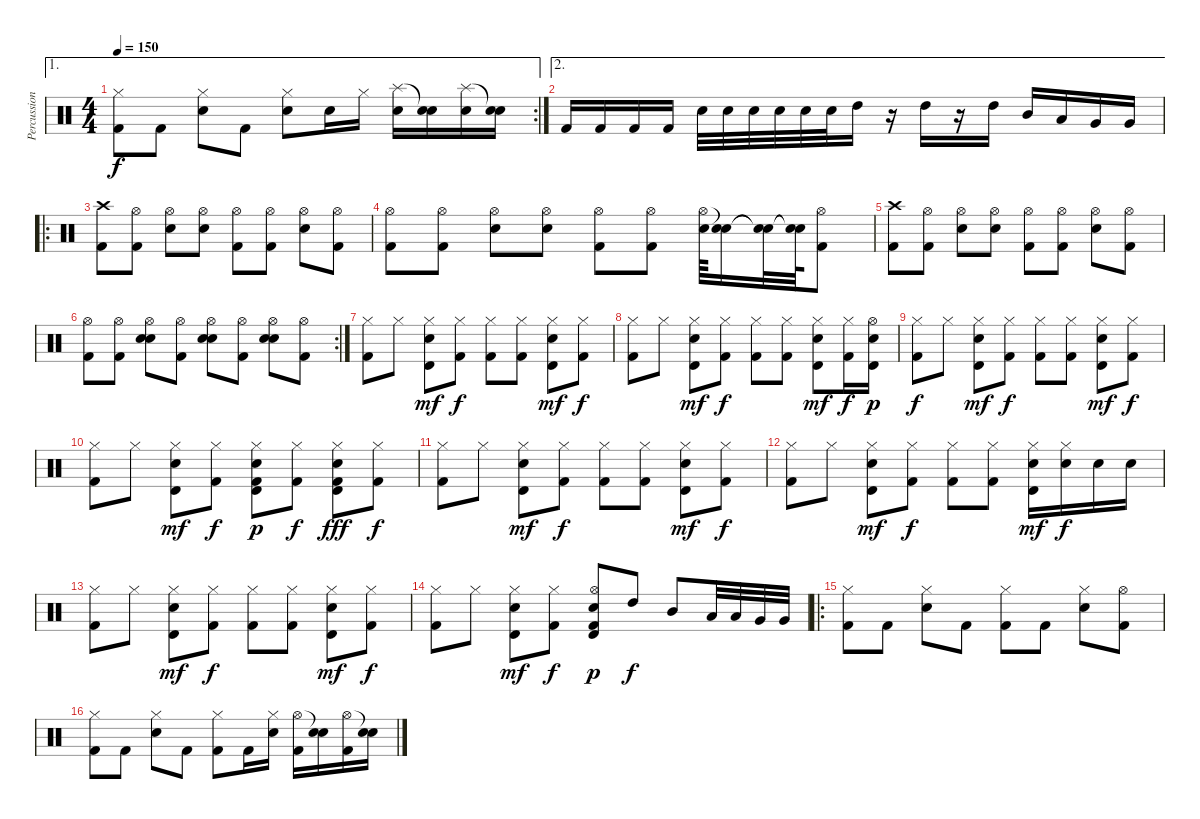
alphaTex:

\track ("Percussions" "Percussion") {instrument percussion}
\staff {score}
\articulation defaults
\ae 1
\rc 2
\ts (4 4)
\tempo 150
\clef neutral
\ks c
("Hi-Hat (closed)" "Kick (hit) 2").8{dy f} "Kick (hit) 2".8 ("Hi-Hat (closed)" "Snare (hit) 2").8 "Kick (hit) 2".8 ("Hi-Hat (closed)" "Snare (hit) 2").8 "Snare (hit) 2".16 "Hi-Hat (closed)".16 ("Splash (hit)" "Snare (hit) 2").16 ("Snare (hit)"{t} "Snare (hit) 2").16 ("Splash (hit)" "Snare (hit) 2").16 ("Snare (hit)"{t} "Snare (hit) 2").16 |
\ae 2 "Kick (hit) 2".16 "Kick (hit) 2".16 "Kick (hit) 2".16 "Kick (hit) 2".16 "Snare (hit) 2".32 "Snare (hit) 2".32 "Snare (hit) 2".32 "Snare (hit) 2".32 "Snare (hit) 2".32 "Snare (hit) 2".32 "High Tom (hit)".16
r.16 "High Tom (hit)".16 r.16 "High Tom (hit)".16 "Mid Tom (hit)".16 "Low Tom (hit)".16 "Very Low Tom (hit)".16 "Very Low Tom (hit)".16 |
\ro
("Crash high (hit)" "Kick (hit) 2").8 ("Hi-Hat (open)" "Kick (hit) 2").8 ("Hi-Hat (open)" "Electric Snare (hit)").8 ("Hi-Hat (open)" "Electric Snare (hit)").8 ("Hi-Hat (open)" "Kick (hit) 2").8 ("Hi-Hat (open)" "Kick (hit) 2").8 ("Hi-Hat (open)" "Electric Snare (hit)").8 ("Hi-Hat (open)" "Kick (hit) 2").8 |
("Hi-Hat (open)" "Kick (hit) 2").8 ("Hi-Hat (open)" "Kick (hit) 2").8 ("Hi-Hat (open)" "Electric Snare (hit)").8 ("Hi-Hat (open)" "Electric Snare (hit)").8 ("Hi-Hat (open)" "Kick (hit) 2").8 ("Hi-Hat (open)" "Kick (hit) 2").8 ("Hi-Hat (open)" "Electric Snare (hit)").64 ("Snare (hit)"{t} "Electric Snare (hit)").16 ("Snare (hit)"{t} "Electric Snare (hit)"{t}).32 ("Snare (hit)"{t} "Snare (hit)"{t}).64 ("Hi-Hat (open)" "Kick (hit) 2").8 |
("Crash high (hit)" "Kick (hit) 2").8 ("Hi-Hat (open)" "Kick (hit) 2").8 ("Hi-Hat (open)" "Electric Snare (hit)").8 ("Hi-Hat (open)" "Electric Snare (hit)").8 ("Hi-Hat (open)" "Kick (hit) 2").8 ("Hi-Hat (open)" "Kick (hit) 2").8 ("Hi-Hat (open)" "Electric Snare (hit)").8 ("Hi-Hat (open)" "Kick (hit) 2").8 |
\rc 2
("Hi-Hat (open)" "Kick (hit) 2").8 ("Hi-Hat (open)" "Kick (hit) 2").8 ("Hi-Hat (open)" "Electric Snare (hit)" "Electric Snare (hit)").8{bu 240} ("Hi-Hat (open)" "Kick (hit) 2").8 ("Hi-Hat (open)" "Electric Snare (hit)" "Electric Snare (hit)").8{bu 240} ("Hi-Hat (open)" "Kick (hit) 2").8 ("Hi-Hat (open)" "Electric Snare (hit)" "Electric Snare (hit)").8{bu 240} ("Hi-Hat (open)" "Kick (hit) 2").8 |
("Hi-Hat (closed)" "Kick (hit) 2").8 "Hi-Hat (closed)".8 ("Hi-Hat (closed)" "Snare (hit) 2" "Timbale high (hit)").8{dy mf} ("Hi-Hat (closed)" "Kick (hit) 2").8{dy f} ("Hi-Hat (closed)" "Kick (hit) 2").8 ("Hi-Hat (closed)" "Kick (hit) 2").8 ("Hi-Hat (closed)" "Snare (hit) 2" "Timbale high (hit)").8{dy mf} ("Hi-Hat (closed)" "Kick (hit) 2").8{dy f} |
("Hi-Hat (closed)" "Kick (hit) 2").8 "Hi-Hat (closed)".8 ("Hi-Hat (closed)" "Snare (hit) 2" "Timbale high (hit)").8{dy mf} ("Hi-Hat (closed)" "Kick (hit) 2").8{dy f} ("Hi-Hat (closed)" "Kick (hit) 2").8 ("Hi-Hat (closed)" "Kick (hit) 2").8 ("Hi-Hat (closed)" "Snare (hit) 2" "Timbale high (hit)").8{dy mf} ("Hi-Hat (closed)" "Kick (hit) 2").16{dy f} ("Hi-Hat (open)" "Snare (hit) 2" "Timbale high (hit)").16{dy p} |
("Hi-Hat (closed)" "Kick (hit) 2").8{dy f} "Hi-Hat (closed)".8 ("Hi-Hat (closed)" "Snare (hit) 2" "Timbale high (hit)").8{dy mf} ("Hi-Hat (closed)" "Kick (hit) 2").8{dy f} ("Hi-Hat (closed)" "Kick (hit) 2").8 ("Hi-Hat (closed)" "Kick (hit) 2").8 ("Hi-Hat (closed)" "Snare (hit) 2" "Timbale high (hit)").8{dy mf} ("Hi-Hat (closed)" "Kick (hit) 2").8{dy f} |
("Hi-Hat (closed)" "Kick (hit) 2").8 "Hi-Hat (closed)".8 ("Hi-Hat (closed)" "Snare (hit) 2" "Timbale high (hit)").8{dy mf} ("Hi-Hat (closed)" "Kick (hit) 2").8{dy f} ("Hi-Hat (closed)" "Timbale high (hit)" "Snare (hit) 2" "Kick (hit) 2").8{dy p} ("Hi-Hat (closed)" "Kick (hit) 2").8{dy f} ("Hi-Hat (closed)" "Timbale high (hit)" "Snare (hit) 2" "Kick (hit) 2").8{dy fff} ("Hi-Hat (closed)" "Kick (hit) 2").8{dy f} |
("Hi-Hat (closed)" "Kick (hit) 2").8 "Hi-Hat (closed)".8 ("Hi-Hat (closed)" "Snare (hit) 2" "Timbale high (hit)").8{dy mf} ("Hi-Hat (closed)" "Kick (hit) 2").8{dy f} ("Hi-Hat (closed)" "Kick (hit) 2").8 ("Hi-Hat (closed)" "Kick (hit) 2").8 ("Hi-Hat (closed)" "Snare (hit) 2" "Timbale high (hit)").8{dy mf} ("Hi-Hat (closed)" "Kick (hit) 2").8{dy f} |
("Hi-Hat (closed)" "Kick (hit) 2").8 "Hi-Hat (closed)".8 ("Hi-Hat (closed)" "Snare (hit) 2" "Timbale high (hit)").8{dy mf} ("Hi-Hat (closed)" "Kick (hit) 2").8{dy f} ("Hi-Hat (closed)" "Kick (hit) 2").8 ("Hi-Hat (closed)" "Kick (hit) 2").8 ("Hi-Hat (closed)" "Snare (hit) 2" "Timbale high (hit)").16{dy mf} ("Hi-Hat (closed)" "Snare (hit) 2").16{dy f} "Snare (hit) 2".16 "Snare (hit) 2".16 |
("Hi-Hat (closed)" "Kick (hit) 2").8 "Hi-Hat (closed)".8 ("Hi-Hat (closed)" "Snare (hit) 2" "Timbale high (hit)").8{dy mf} ("Hi-Hat (closed)" "Kick (hit) 2").8{dy f} ("Hi-Hat (closed)" "Kick (hit) 2").8 ("Hi-Hat (closed)" "Kick (hit) 2").8 ("Hi-Hat (closed)" "Snare (hit) 2" "Timbale high (hit)").8{dy mf} ("Hi-Hat (closed)" "Kick (hit) 2").8{dy f} |
("Hi-Hat (closed)" "Kick (hit) 2").8 "Hi-Hat (closed)".8 ("Hi-Hat (closed)" "Snare (hit) 2" "Timbale high (hit)").8{dy mf} ("Hi-Hat (closed)" "Kick (hit) 2").8{dy f} ("Hi-Hat (open)" "Kick (hit) 2" "Snare (hit) 2" "Timbale high (hit)").8{dy p} "High Tom (hit)".8{dy f} "Mid Tom (hit)".8 "Low Tom (hit)".32 "Low Tom (hit)".32 "Very Low Tom (hit)".32 "Very Low Tom (hit)".32 |
\ro
("Hi-Hat (closed)" "Kick (hit) 2").8 "Kick (hit) 2".8 ("Hi-Hat (closed)" "Snare (hit) 2").8 "Kick (hit) 2".8 ("Hi-Hat (closed)" "Kick (hit) 2").8 "Kick (hit) 2".8 ("Hi-Hat (closed)" "Snare (hit) 2").8 ("Hi-Hat (open)" "Kick (hit) 2").8 |
("Hi-Hat (closed)" "Kick (hit) 2").8 "Kick (hit) 2".8 ("Hi-Hat (closed)" "Snare (hit) 2").8 "Kick (hit) 2".8 ("Hi-Hat (closed)" "Kick (hit) 2").8 "Kick (hit) 2".16 ("Hi-Hat (closed)" "Snare (hit) 2").16 ("Hi-Hat (open)" "Kick (hit) 2").16 ("Snare (hit)"{t} "Snare (hit) 2").16 ("Hi-Hat (open)" "Kick (hit) 2").16 ("Snare (hit)"{t} "Snare (hit) 2").16
